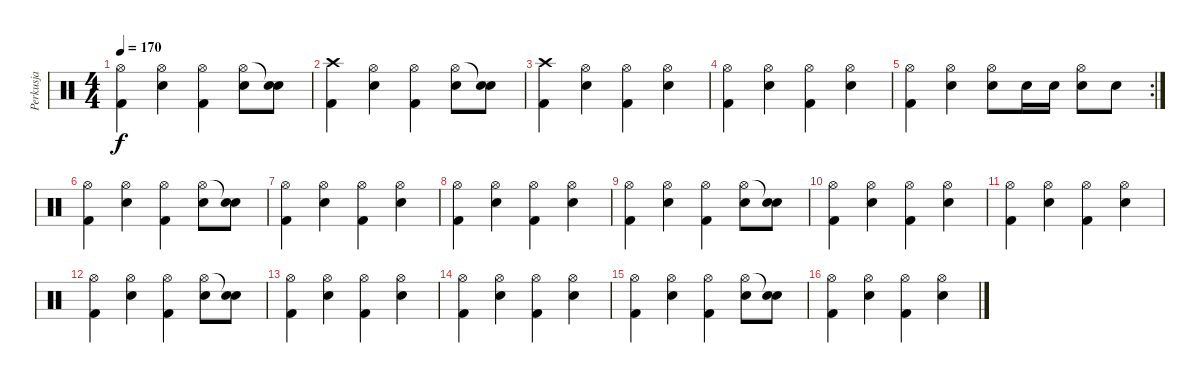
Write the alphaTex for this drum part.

\track ("Perkusja" "Perkusja") {instrument percussion}
\staff {score}
\articulation defaults
\ts (4 4)
\tempo 170
\clef neutral
\ks c
("Hi-Hat (open)" "Kick (hit) 2").4{dy f} ("Hi-Hat (open)" "Snare (hit) 2").4 ("Hi-Hat (open)" "Kick (hit) 2").4 ("Hi-Hat (open)" "Snare (hit) 2").8 ("Snare (hit)"{t} "Snare (hit) 2").8 |
("Crash high (hit)" "Kick (hit) 2").4 ("Hi-Hat (open)" "Snare (hit) 2").4 ("Hi-Hat (open)" "Kick (hit) 2").4 ("Hi-Hat (open)" "Snare (hit) 2").8 ("Snare (hit)"{t} "Snare (hit) 2").8 |
("Crash high (hit)" "Kick (hit) 2").4 ("Hi-Hat (open)" "Snare (hit) 2").4 ("Hi-Hat (open)" "Kick (hit) 2").4 ("Hi-Hat (open)" "Snare (hit) 2").4 |
("Hi-Hat (open)" "Kick (hit) 2").4 ("Hi-Hat (open)" "Snare (hit) 2").4 ("Hi-Hat (open)" "Kick (hit) 2").4 ("Hi-Hat (open)" "Snare (hit) 2").4 |
\rc 2
("Hi-Hat (open)" "Kick (hit) 2").4 ("Hi-Hat (open)" "Snare (hit) 2").4 ("Hi-Hat (open)" "Snare (hit) 2").8 "Snare (hit) 2".16 "Snare (hit) 2".16 ("Hi-Hat (open)" "Snare (hit) 2").8 "Snare (hit) 2".8 |
("Hi-Hat (open)" "Kick (hit) 2").4 ("Hi-Hat (open)" "Snare (hit) 2").4 ("Hi-Hat (open)" "Kick (hit) 2").4 ("Hi-Hat (open)" "Snare (hit) 2").8 ("Snare (hit)"{t} "Snare (hit) 2").8 |
("Hi-Hat (open)" "Kick (hit) 2").4 ("Hi-Hat (open)" "Snare (hit) 2").4 ("Hi-Hat (open)" "Kick (hit) 2").4 ("Hi-Hat (open)" "Snare (hit) 2").4 |
("Hi-Hat (open)" "Kick (hit) 2").4 ("Hi-Hat (open)" "Snare (hit) 2").4 ("Hi-Hat (open)" "Kick (hit) 2").4 ("Hi-Hat (open)" "Snare (hit) 2").4 |
("Hi-Hat (open)" "Kick (hit) 2").4 ("Hi-Hat (open)" "Snare (hit) 2").4 ("Hi-Hat (open)" "Kick (hit) 2").4 ("Hi-Hat (open)" "Snare (hit) 2").8 ("Snare (hit)"{t} "Snare (hit) 2").8 |
("Hi-Hat (open)" "Kick (hit) 2").4 ("Hi-Hat (open)" "Snare (hit) 2").4 ("Hi-Hat (open)" "Kick (hit) 2").4 ("Hi-Hat (open)" "Snare (hit) 2").4 |
("Hi-Hat (open)" "Kick (hit) 2").4 ("Hi-Hat (open)" "Snare (hit) 2").4 ("Hi-Hat (open)" "Kick (hit) 2").4 ("Hi-Hat (open)" "Snare (hit) 2").4 |
("Hi-Hat (open)" "Kick (hit) 2").4 ("Hi-Hat (open)" "Snare (hit) 2").4 ("Hi-Hat (open)" "Kick (hit) 2").4 ("Hi-Hat (open)" "Snare (hit) 2").8 ("Snare (hit)"{t} "Snare (hit) 2").8 |
("Hi-Hat (open)" "Kick (hit) 2").4 ("Hi-Hat (open)" "Snare (hit) 2").4 ("Hi-Hat (open)" "Kick (hit) 2").4 ("Hi-Hat (open)" "Snare (hit) 2").4 |
("Hi-Hat (open)" "Kick (hit) 2").4 ("Hi-Hat (open)" "Snare (hit) 2").4 ("Hi-Hat (open)" "Kick (hit) 2").4 ("Hi-Hat (open)" "Snare (hit) 2").4 |
("Hi-Hat (open)" "Kick (hit) 2").4 ("Hi-Hat (open)" "Snare (hit) 2").4 ("Hi-Hat (open)" "Kick (hit) 2").4 ("Hi-Hat (open)" "Snare (hit) 2").8 ("Snare (hit)"{t} "Snare (hit) 2").8 |
("Hi-Hat (open)" "Kick (hit) 2").4 ("Hi-Hat (open)" "Snare (hit) 2").4 ("Hi-Hat (open)" "Kick (hit) 2").4 ("Hi-Hat (open)" "Snare (hit) 2").4
